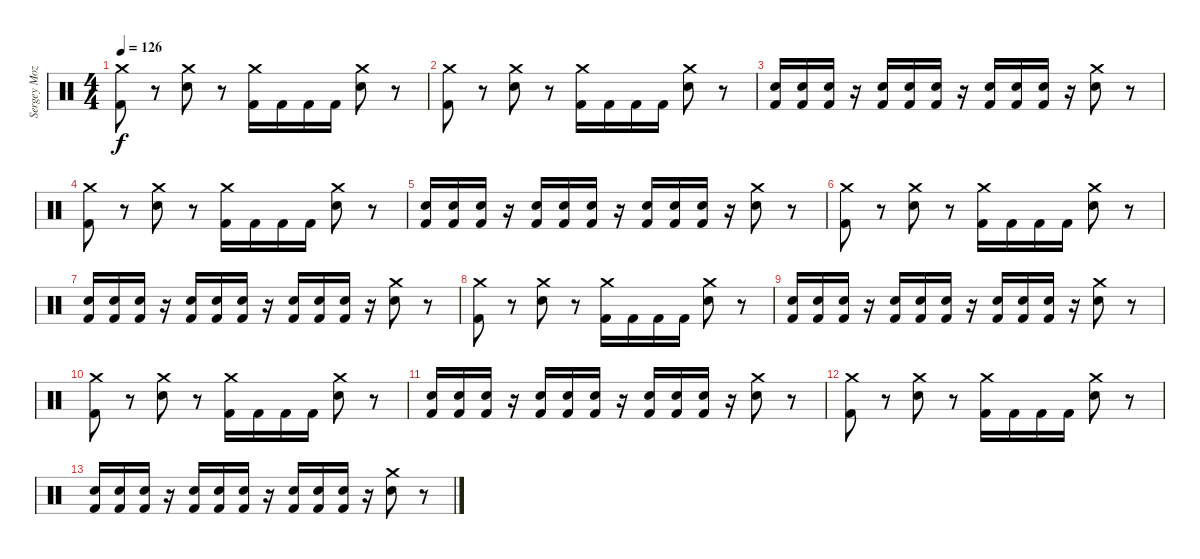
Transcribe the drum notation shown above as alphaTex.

\track ("Sergey Mozalev" "Sergey Moz") {instrument percussion}
\staff {score}
\articulation defaults
\ts (4 4)
\tempo 126
\clef neutral
\ks c
("Crash medium (hit)" "Kick (hit) 2").8{dy f} r.8 ("Crash medium (hit)" "Electric Snare (hit)").8 r.8 ("Crash medium (hit)" "Kick (hit) 2").16 "Kick (hit) 2".16 "Kick (hit) 2".16 "Kick (hit) 2".16 ("Crash medium (hit)" "Electric Snare (hit)").8 r.8 |
("Crash medium (hit)" "Kick (hit) 2").8 r.8 ("Crash medium (hit)" "Electric Snare (hit)").8 r.8 ("Crash medium (hit)" "Kick (hit) 2").16 "Kick (hit) 2".16 "Kick (hit) 2".16 "Kick (hit) 2".16 ("Crash medium (hit)" "Electric Snare (hit)").8 r.8 |
("Electric Snare (hit)" "Kick (hit) 2").16 ("Electric Snare (hit)" "Kick (hit) 2").16 ("Electric Snare (hit)" "Kick (hit) 2").16 r.16 ("Electric Snare (hit)" "Kick (hit) 2").16 ("Electric Snare (hit)" "Kick (hit) 2").16 ("Electric Snare (hit)" "Kick (hit) 2").16 r.16 ("Electric Snare (hit)" "Kick (hit) 2").16 ("Electric Snare (hit)" "Kick (hit) 2").16 ("Electric Snare (hit)" "Kick (hit) 2").16 r.16 ("Electric Snare (hit)" "Crash medium (hit)").8 r.8 |
("Crash medium (hit)" "Kick (hit) 2").8 r.8 ("Crash medium (hit)" "Electric Snare (hit)").8 r.8 ("Crash medium (hit)" "Kick (hit) 2").16 "Kick (hit) 2".16 "Kick (hit) 2".16 "Kick (hit) 2".16 ("Crash medium (hit)" "Electric Snare (hit)").8 r.8 |
("Electric Snare (hit)" "Kick (hit) 2").16 ("Electric Snare (hit)" "Kick (hit) 2").16 ("Electric Snare (hit)" "Kick (hit) 2").16 r.16 ("Electric Snare (hit)" "Kick (hit) 2").16 ("Electric Snare (hit)" "Kick (hit) 2").16 ("Electric Snare (hit)" "Kick (hit) 2").16 r.16 ("Electric Snare (hit)" "Kick (hit) 2").16 ("Electric Snare (hit)" "Kick (hit) 2").16 ("Electric Snare (hit)" "Kick (hit) 2").16 r.16 ("Electric Snare (hit)" "Crash medium (hit)").8 r.8 |
("Crash medium (hit)" "Kick (hit) 2").8 r.8 ("Crash medium (hit)" "Electric Snare (hit)").8 r.8 ("Crash medium (hit)" "Kick (hit) 2").16 "Kick (hit) 2".16 "Kick (hit) 2".16 "Kick (hit) 2".16 ("Crash medium (hit)" "Electric Snare (hit)").8 r.8 |
("Electric Snare (hit)" "Kick (hit) 2").16 ("Electric Snare (hit)" "Kick (hit) 2").16 ("Electric Snare (hit)" "Kick (hit) 2").16 r.16 ("Electric Snare (hit)" "Kick (hit) 2").16 ("Electric Snare (hit)" "Kick (hit) 2").16 ("Electric Snare (hit)" "Kick (hit) 2").16 r.16 ("Electric Snare (hit)" "Kick (hit) 2").16 ("Electric Snare (hit)" "Kick (hit) 2").16 ("Electric Snare (hit)" "Kick (hit) 2").16 r.16 ("Electric Snare (hit)" "Crash medium (hit)").8 r.8 |
("Crash medium (hit)" "Kick (hit) 2").8 r.8 ("Crash medium (hit)" "Electric Snare (hit)").8 r.8 ("Crash medium (hit)" "Kick (hit) 2").16 "Kick (hit) 2".16 "Kick (hit) 2".16 "Kick (hit) 2".16 ("Crash medium (hit)" "Electric Snare (hit)").8 r.8 |
("Electric Snare (hit)" "Kick (hit) 2").16 ("Electric Snare (hit)" "Kick (hit) 2").16 ("Electric Snare (hit)" "Kick (hit) 2").16 r.16 ("Electric Snare (hit)" "Kick (hit) 2").16 ("Electric Snare (hit)" "Kick (hit) 2").16 ("Electric Snare (hit)" "Kick (hit) 2").16 r.16 ("Electric Snare (hit)" "Kick (hit) 2").16 ("Electric Snare (hit)" "Kick (hit) 2").16 ("Electric Snare (hit)" "Kick (hit) 2").16 r.16 ("Electric Snare (hit)" "Crash medium (hit)").8 r.8 |
("Crash medium (hit)" "Kick (hit) 2").8 r.8 ("Crash medium (hit)" "Electric Snare (hit)").8 r.8 ("Crash medium (hit)" "Kick (hit) 2").16 "Kick (hit) 2".16 "Kick (hit) 2".16 "Kick (hit) 2".16 ("Crash medium (hit)" "Electric Snare (hit)").8 r.8 |
("Electric Snare (hit)" "Kick (hit) 2").16 ("Electric Snare (hit)" "Kick (hit) 2").16 ("Electric Snare (hit)" "Kick (hit) 2").16 r.16 ("Electric Snare (hit)" "Kick (hit) 2").16 ("Electric Snare (hit)" "Kick (hit) 2").16 ("Electric Snare (hit)" "Kick (hit) 2").16 r.16 ("Electric Snare (hit)" "Kick (hit) 2").16 ("Electric Snare (hit)" "Kick (hit) 2").16 ("Electric Snare (hit)" "Kick (hit) 2").16 r.16 ("Electric Snare (hit)" "Crash medium (hit)").8 r.8 |
("Crash medium (hit)" "Kick (hit) 2").8 r.8 ("Crash medium (hit)" "Electric Snare (hit)").8 r.8 ("Crash medium (hit)" "Kick (hit) 2").16 "Kick (hit) 2".16 "Kick (hit) 2".16 "Kick (hit) 2".16 ("Crash medium (hit)" "Electric Snare (hit)").8 r.8 |
("Electric Snare (hit)" "Kick (hit) 2").16 ("Electric Snare (hit)" "Kick (hit) 2").16 ("Electric Snare (hit)" "Kick (hit) 2").16 r.16 ("Electric Snare (hit)" "Kick (hit) 2").16 ("Electric Snare (hit)" "Kick (hit) 2").16 ("Electric Snare (hit)" "Kick (hit) 2").16 r.16 ("Electric Snare (hit)" "Kick (hit) 2").16 ("Electric Snare (hit)" "Kick (hit) 2").16 ("Electric Snare (hit)" "Kick (hit) 2").16 r.16 ("Electric Snare (hit)" "Crash medium (hit)").8 r.8
